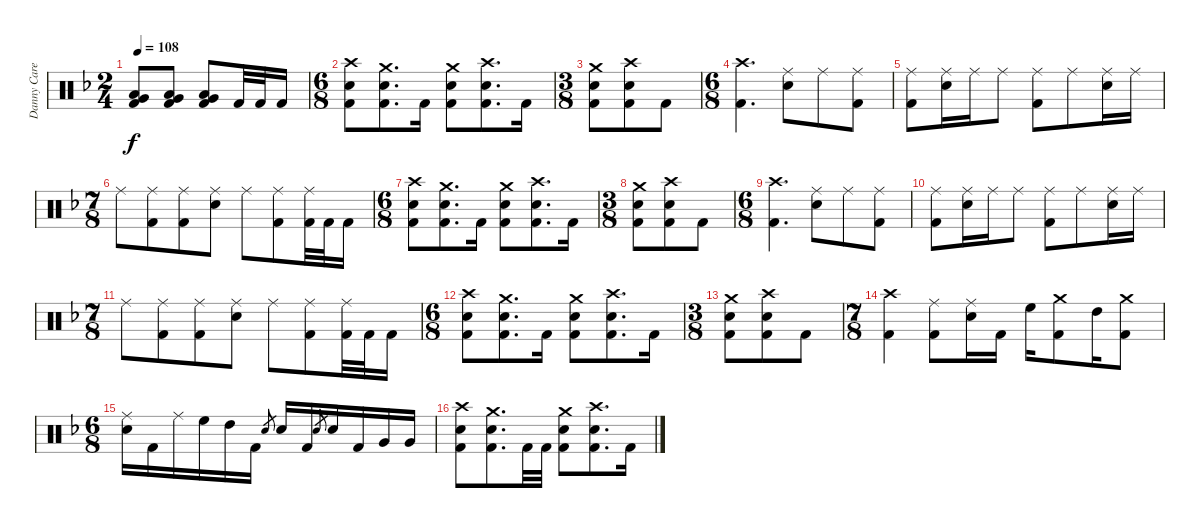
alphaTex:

\track ("Danny Carey" "Danny Care") {instrument percussion}
\staff {score}
\articulation defaults
\ts (2 4)
\tempo 108
\clef neutral
\ks dminor
("Very Low Tom (hit)" "Low Floor Tom (hit)" "Kick (hit) 2").8{dy f} ("Very Low Tom (hit)" "Low Floor Tom (hit)" "Kick (hit) 2").8 ("Very Low Tom (hit)" "Low Floor Tom (hit)" "Kick (hit) 2").8 "Kick (hit) 2".32 "Kick (hit) 2".32 "Kick (hit) 2".16 |
\ts (6 8)
("Crash high (hit)" "Electric Snare (hit)" "Kick (hit) 2").8 ("Crash medium (hit)" "Electric Snare (hit)" "Kick (hit) 2").8{d} "Kick (hit) 2".16 ("Crash medium (hit)" "Electric Snare (hit)" "Kick (hit) 2").8 ("Crash high (hit)" "Electric Snare (hit)" "Kick (hit) 2").8{d} "Kick (hit) 2".16 |
\ts (3 8)
("Crash medium (hit)" "Electric Snare (hit)" "Kick (hit) 2").8 ("Crash high (hit)" "Electric Snare (hit)" "Kick (hit) 2").8 "Kick (hit) 2".8 |
\ts (6 8)
("Crash high (hit)" "Kick (hit) 2").4{d} ("Ride (middle)" "Electric Snare (hit)").8 "Ride (middle)".8 ("Ride (middle)" "Kick (hit) 2").8 |
("Ride (middle)" "Kick (hit) 2").8 ("Ride (middle)" "Electric Snare (hit)").16 "Ride (middle)".16 "Ride (middle)".8 ("Ride (middle)" "Kick (hit) 2").8 "Ride (middle)".8 ("Ride (middle)" "Electric Snare (hit)").16 "Ride (middle)".16 |
\ts (7 8)
"Ride (middle)".8 ("Ride (middle)" "Kick (hit) 2").8 ("Ride (middle)" "Kick (hit) 2").8 ("Ride (middle)" "Electric Snare (hit)").8 "Ride (middle)".8 ("Ride (middle)" "Kick (hit) 2").8 ("Ride (middle)" "Kick (hit) 2").32 "Kick (hit) 2".32 "Kick (hit) 2".16 |
\ts (6 8)
("Crash high (hit)" "Electric Snare (hit)" "Kick (hit) 2").8 ("Crash medium (hit)" "Electric Snare (hit)" "Kick (hit) 2").8{d} "Kick (hit) 2".16 ("Crash medium (hit)" "Electric Snare (hit)" "Kick (hit) 2").8 ("Crash high (hit)" "Electric Snare (hit)" "Kick (hit) 2").8{d} "Kick (hit) 2".16 |
\ts (3 8)
("Crash medium (hit)" "Electric Snare (hit)" "Kick (hit) 2").8 ("Crash high (hit)" "Electric Snare (hit)" "Kick (hit) 2").8 "Kick (hit) 2".8 |
\ts (6 8)
("Crash high (hit)" "Kick (hit) 2").4{d} ("Ride (middle)" "Electric Snare (hit)").8 "Ride (middle)".8 ("Ride (middle)" "Kick (hit) 2").8 |
("Ride (middle)" "Kick (hit) 2").8 ("Ride (middle)" "Electric Snare (hit)").16 "Ride (middle)".16 "Ride (middle)".8 ("Ride (middle)" "Kick (hit) 2").8 "Ride (middle)".8 ("Ride (middle)" "Electric Snare (hit)").16 "Ride (middle)".16 |
\ts (7 8)
"Ride (middle)".8 ("Ride (middle)" "Kick (hit) 2").8 ("Ride (middle)" "Kick (hit) 2").8 ("Ride (middle)" "Electric Snare (hit)").8 "Ride (middle)".8 ("Ride (middle)" "Kick (hit) 2").8 ("Ride (middle)" "Kick (hit) 2").32 "Kick (hit) 2".32 "Kick (hit) 2".16 |
\ts (6 8)
("Crash high (hit)" "Electric Snare (hit)" "Kick (hit) 2").8 ("Crash medium (hit)" "Electric Snare (hit)" "Kick (hit) 2").8{d} "Kick (hit) 2".16 ("Crash medium (hit)" "Electric Snare (hit)" "Kick (hit) 2").8 ("Crash high (hit)" "Electric Snare (hit)" "Kick (hit) 2").8{d} "Kick (hit) 2".16 |
\ts (3 8)
("Crash medium (hit)" "Electric Snare (hit)" "Kick (hit) 2").8 ("Crash high (hit)" "Electric Snare (hit)" "Kick (hit) 2").8 "Kick (hit) 2".8 |
\ts (7 8)
("Crash high (hit)" "Kick (hit) 2").4 ("Ride (middle)" "Kick (hit) 2").8 ("Ride (middle)" "Electric Snare (hit)").16 "Kick (hit) 2".16 "High Floor Tom (hit)".16 ("Crash medium (hit)" "Kick (hit) 2").8 "High Tom (hit)".16 ("Crash medium (hit)" "Kick (hit) 2").8 |
\ts (6 8)
("Ride (middle)" "Electric Snare (hit)").16 "Kick (hit) 2".16 "Ride (middle)".16 "High Floor Tom (hit)".16 "High Tom (hit)".16 "Kick (hit) 2".16 "Electric Snare (hit)".8{gr} "Electric Snare (hit)".16 "Kick (hit) 2".16 "Electric Snare (hit)".8{gr} "Electric Snare (hit)".16 "Kick (hit) 2".16 "Very Low Tom (hit)".16 "Very Low Tom (hit)".16 |
("Crash high (hit)" "Electric Snare (hit)" "Kick (hit) 2").8 ("Crash medium (hit)" "Electric Snare (hit)" "Kick (hit) 2").8{d} "Kick (hit) 2".32 "Kick (hit) 2".32 ("Crash medium (hit)" "Electric Snare (hit)" "Kick (hit) 2").8 ("Crash high (hit)" "Electric Snare (hit)" "Kick (hit) 2").8{d} "Kick (hit) 2".16
